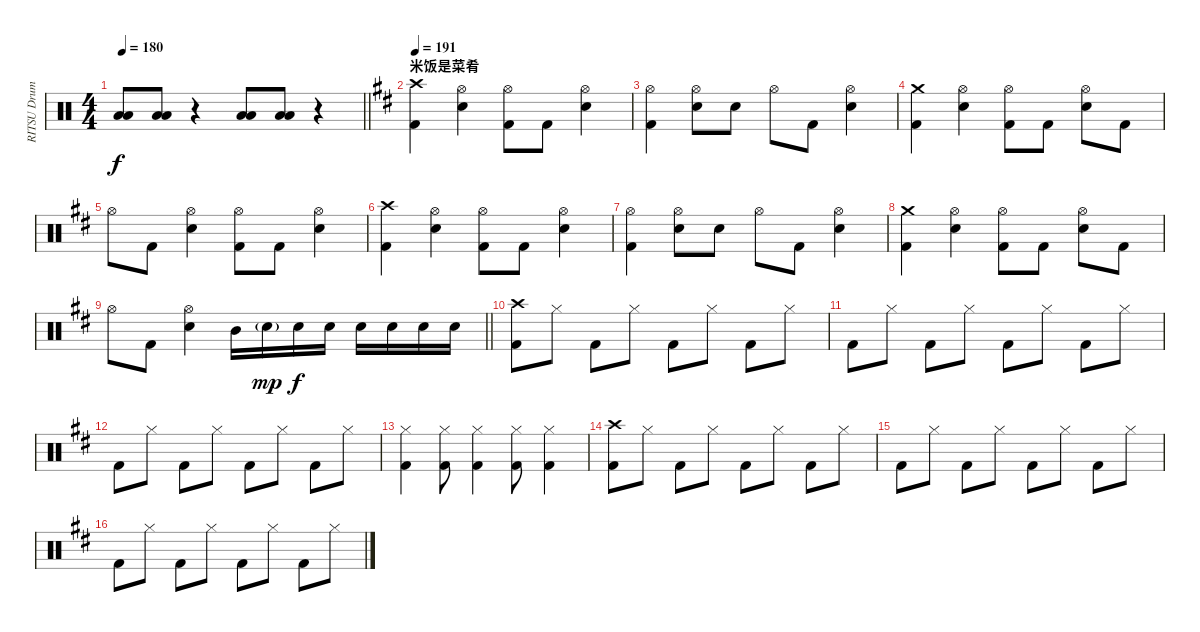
\track ("RITSU Drums" "RITSU Drum") {instrument percussion}
\staff {score}
\articulation defaults
\ts (4 4)
\tempo 180
\clef neutral
\barLineRight lightlight
\ks c
("Low Tom (hit)" "Low Floor Tom (hit)").8{dy f} ("Low Tom (hit)" "Low Floor Tom (hit)").8 r.4 ("Low Tom (hit)" "Low Floor Tom (hit)").8 ("Low Tom (hit)" "Low Floor Tom (hit)").8 r.4 |
\section ("" "米饭是菜肴")
\tempo 191
\ks d
("Crash high (hit)" "Kick (hit) 2").4 ("Hi-Hat (open)" "Electric Snare (hit)").4 ("Hi-Hat (open)" "Kick (hit) 2").8 "Kick (hit) 2".8 ("Hi-Hat (open)" "Electric Snare (hit)").4 |
("Hi-Hat (open)" "Kick (hit) 2").4 ("Hi-Hat (open)" "Electric Snare (hit)").8 "Electric Snare (hit)".8 "Hi-Hat (open)".8 "Kick (hit) 2".8 ("Hi-Hat (open)" "Electric Snare (hit)").4 |
("Crash medium (hit)" "Kick (hit) 2").4 ("Hi-Hat (open)" "Electric Snare (hit)").4 ("Hi-Hat (open)" "Kick (hit) 2").8 "Kick (hit) 2".8 ("Hi-Hat (open)" "Electric Snare (hit)").8 "Kick (hit) 2".8 |
"Hi-Hat (open)".8 "Kick (hit) 2".8 ("Hi-Hat (open)" "Electric Snare (hit)").4 ("Hi-Hat (open)" "Kick (hit) 2").8 "Kick (hit) 2".8 ("Hi-Hat (open)" "Electric Snare (hit)").4 |
("Crash high (hit)" "Kick (hit) 2").4 ("Hi-Hat (open)" "Electric Snare (hit)").4 ("Hi-Hat (open)" "Kick (hit) 2").8 "Kick (hit) 2".8 ("Hi-Hat (open)" "Electric Snare (hit)").4 |
("Hi-Hat (open)" "Kick (hit) 2").4 ("Hi-Hat (open)" "Electric Snare (hit)").8 "Electric Snare (hit)".8 "Hi-Hat (open)".8 "Kick (hit) 2".8 ("Hi-Hat (open)" "Electric Snare (hit)").4 |
("Crash medium (hit)" "Kick (hit) 2").4 ("Hi-Hat (open)" "Electric Snare (hit)").4 ("Hi-Hat (open)" "Kick (hit) 2").8 "Kick (hit) 2".8 ("Hi-Hat (open)" "Electric Snare (hit)").8 "Kick (hit) 2".8 |
\barLineRight lightlight "Hi-Hat (open)".8 "Kick (hit) 2".8
("Hi-Hat (open)" "Electric Snare (hit)").4 "Mid Tom (hit)".16 "Electric Snare (hit)"{g}.16{dy mp} "Electric Snare (hit)".16{dy f} "Electric Snare (hit)".16 "Electric Snare (hit)".16 "Electric Snare (hit)".16 "Electric Snare (hit)".16 "Electric Snare (hit)".16 |
("Crash high (hit)" "Kick (hit) 2").8 "Hi-Hat (closed)".8 "Kick (hit) 2".8 "Hi-Hat (closed)".8 "Kick (hit) 2".8 "Hi-Hat (closed)".8 "Kick (hit) 2".8 "Hi-Hat (closed)".8 |
"Kick (hit) 2".8 "Hi-Hat (closed)".8 "Kick (hit) 2".8 "Hi-Hat (closed)".8 "Kick (hit) 2".8 "Hi-Hat (closed)".8 "Kick (hit) 2".8 "Hi-Hat (closed)".8 |
"Kick (hit) 2".8 "Hi-Hat (closed)".8 "Kick (hit) 2".8 "Hi-Hat (closed)".8 "Kick (hit) 2".8 "Hi-Hat (closed)".8 "Kick (hit) 2".8 "Hi-Hat (closed)".8 |
("Hi-Hat (closed)" "Kick (hit) 2").4 ("Hi-Hat (closed)" "Kick (hit) 2").8 ("Hi-Hat (closed)" "Kick (hit) 2").4 ("Hi-Hat (closed)" "Kick (hit) 2").8 ("Hi-Hat (closed)" "Kick (hit) 2").4 |
("Crash high (hit)" "Kick (hit) 2").8 "Hi-Hat (closed)".8 "Kick (hit) 2".8 "Hi-Hat (closed)".8 "Kick (hit) 2".8 "Hi-Hat (closed)".8 "Kick (hit) 2".8 "Hi-Hat (closed)".8 |
"Kick (hit) 2".8 "Hi-Hat (closed)".8 "Kick (hit) 2".8 "Hi-Hat (closed)".8 "Kick (hit) 2".8 "Hi-Hat (closed)".8 "Kick (hit) 2".8 "Hi-Hat (closed)".8 |
"Kick (hit) 2".8 "Hi-Hat (closed)".8 "Kick (hit) 2".8 "Hi-Hat (closed)".8 "Kick (hit) 2".8 "Hi-Hat (closed)".8 "Kick (hit) 2".8 "Hi-Hat (closed)".8
